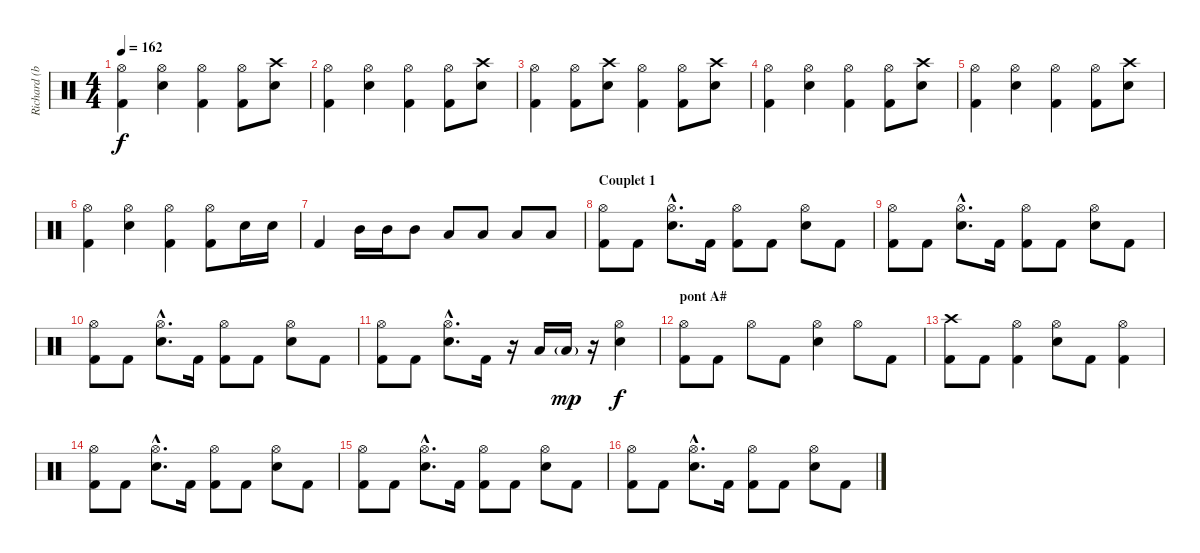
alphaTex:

\track ("Richard (batterie)" "Richard (b") {instrument percussion}
\staff {score}
\articulation defaults
\ts (4 4)
\tempo 162
\clef neutral
\ks c
("Hi-Hat (open)" "Kick (hit) 2").4{dy f} ("Hi-Hat (open)" "Snare (hit) 2").4 ("Hi-Hat (open)" "Kick (hit) 2").4 ("Hi-Hat (open)" "Kick (hit) 2").8 ("Crash high (hit)" "Snare (hit) 2").8 |
("Hi-Hat (open)" "Kick (hit) 2").4 ("Hi-Hat (open)" "Snare (hit) 2").4 ("Hi-Hat (open)" "Kick (hit) 2").4 ("Hi-Hat (open)" "Kick (hit) 2").8 ("Crash high (hit)" "Snare (hit) 2").8 |
("Hi-Hat (open)" "Kick (hit) 2").4 ("Hi-Hat (open)" "Kick (hit) 2").8 ("Crash high (hit)" "Snare (hit) 2").8 ("Hi-Hat (open)" "Kick (hit) 2").4 ("Hi-Hat (open)" "Kick (hit) 2").8 ("Crash high (hit)" "Snare (hit) 2").8 |
("Hi-Hat (open)" "Kick (hit) 2").4 ("Hi-Hat (open)" "Snare (hit) 2").4 ("Hi-Hat (open)" "Kick (hit) 2").4 ("Hi-Hat (open)" "Kick (hit) 2").8 ("Crash high (hit)" "Snare (hit) 2").8 |
("Hi-Hat (open)" "Kick (hit) 2").4 ("Hi-Hat (open)" "Snare (hit) 2").4 ("Hi-Hat (open)" "Kick (hit) 2").4 ("Hi-Hat (open)" "Kick (hit) 2").8 ("Crash high (hit)" "Snare (hit) 2").8 |
("Hi-Hat (open)" "Kick (hit) 2").4 ("Hi-Hat (open)" "Snare (hit) 2").4 ("Hi-Hat (open)" "Kick (hit) 2").4 ("Hi-Hat (open)" "Kick (hit) 2").8 "Snare (hit) 2".16 "Snare (hit) 2".16 |
"Kick (hit) 2".4 "Mid Tom (hit)".16 "Mid Tom (hit)".16 "Mid Tom (hit)".8 "Low Tom (hit)".8 "Low Tom (hit)".8 "Low Floor Tom (hit)".8 "Low Floor Tom (hit)".8 |
\section ("" "Couplet 1")
("Hi-Hat (open)" "Kick (hit) 2").8 "Kick (hit) 2".8 ("Hi-Hat (open)"{hac} "Snare (hit) 2"{hac}).8{d} "Kick (hit) 2".16 ("Hi-Hat (open)" "Kick (hit) 2").8 "Kick (hit) 2".8 ("Hi-Hat (open)" "Snare (hit) 2").8 "Kick (hit) 2".8 |
("Hi-Hat (open)" "Kick (hit) 2").8 "Kick (hit) 2".8 ("Hi-Hat (open)"{hac} "Snare (hit) 2"{hac}).8{d} "Kick (hit) 2".16 ("Hi-Hat (open)" "Kick (hit) 2").8 "Kick (hit) 2".8 ("Hi-Hat (open)" "Snare (hit) 2").8 "Kick (hit) 2".8 |
("Hi-Hat (open)" "Kick (hit) 2").8 "Kick (hit) 2".8 ("Hi-Hat (open)"{hac} "Snare (hit) 2"{hac}).8{d} "Kick (hit) 2".16 ("Hi-Hat (open)" "Kick (hit) 2").8 "Kick (hit) 2".8 ("Hi-Hat (open)" "Snare (hit) 2").8 "Kick (hit) 2".8 |
("Hi-Hat (open)" "Kick (hit) 2").8 "Kick (hit) 2".8 ("Hi-Hat (open)"{hac} "Snare (hit) 2"{hac}).8{d} "Kick (hit) 2".16 r.16 "Low Tom (hit)".16 "Low Tom (hit)"{g}.16{dy mp} r.16 ("Hi-Hat (open)" "Snare (hit) 2").4{dy f} |
\section ("" "pont A#")
("Hi-Hat (open)" "Kick (hit) 2").8 "Kick (hit) 2".8 "Hi-Hat (open)".8 "Kick (hit) 2".8 ("Hi-Hat (open)" "Snare (hit) 2").4 "Hi-Hat (open)".8 "Kick (hit) 2".8 |
("Crash high (hit)" "Kick (hit) 2").8 "Kick (hit) 2".8 ("Hi-Hat (open)" "Kick (hit) 2").4 ("Hi-Hat (open)" "Snare (hit) 2").8 "Kick (hit) 2".8 ("Hi-Hat (open)" "Kick (hit) 2").4 |
("Hi-Hat (open)" "Kick (hit) 2").8 "Kick (hit) 2".8 ("Hi-Hat (open)"{hac} "Snare (hit) 2"{hac}).8{d} "Kick (hit) 2".16 ("Hi-Hat (open)" "Kick (hit) 2").8 "Kick (hit) 2".8 ("Hi-Hat (open)" "Snare (hit) 2").8 "Kick (hit) 2".8 |
("Hi-Hat (open)" "Kick (hit) 2").8 "Kick (hit) 2".8 ("Hi-Hat (open)"{hac} "Snare (hit) 2"{hac}).8{d} "Kick (hit) 2".16 ("Hi-Hat (open)" "Kick (hit) 2").8 "Kick (hit) 2".8 ("Hi-Hat (open)" "Snare (hit) 2").8 "Kick (hit) 2".8 |
("Hi-Hat (open)" "Kick (hit) 2").8 "Kick (hit) 2".8 ("Hi-Hat (open)"{hac} "Snare (hit) 2"{hac}).8{d} "Kick (hit) 2".16 ("Hi-Hat (open)" "Kick (hit) 2").8 "Kick (hit) 2".8 ("Hi-Hat (open)" "Snare (hit) 2").8 "Kick (hit) 2".8
